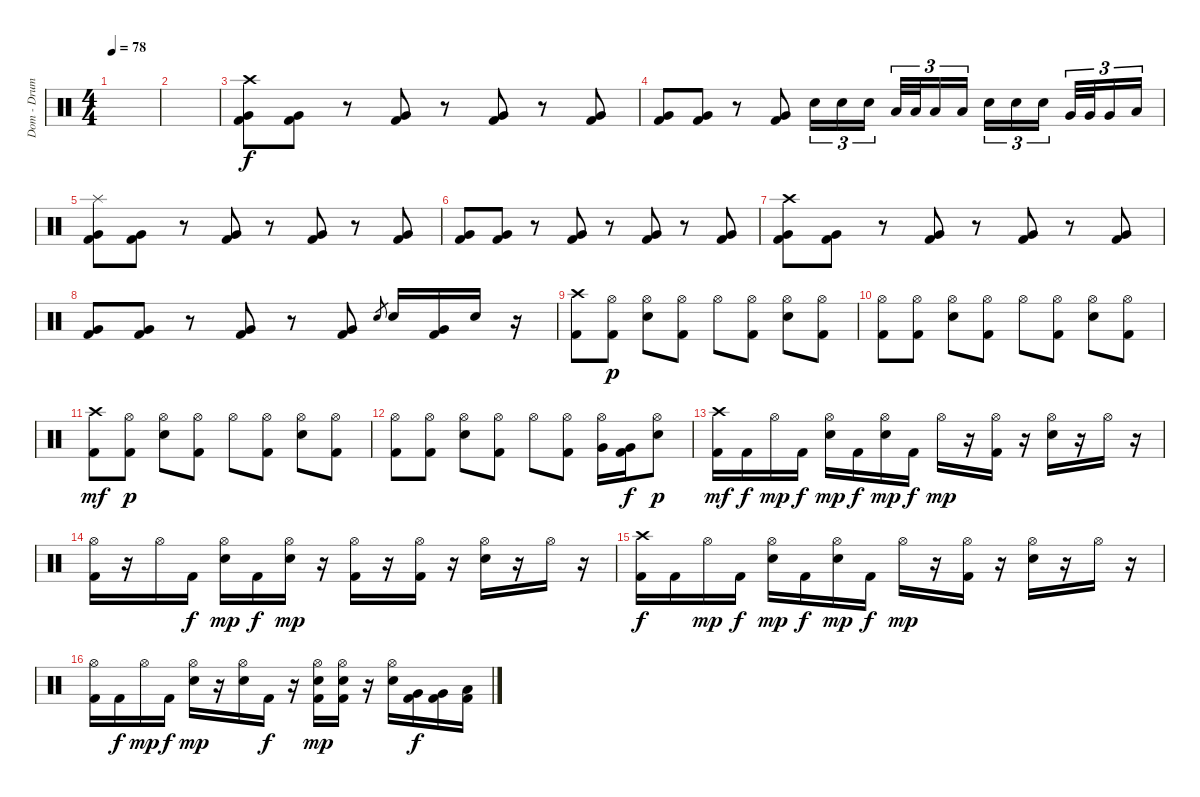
\track ("Dom - Drums" "Dom - Drum") {instrument percussion}
\staff {score}
\articulation defaults
\ts (4 4)
\tempo 78
\clef neutral
\ks c
|
|
("Crash high (hit)" "Very Low Tom (hit)" "Kick (hit) 2").8 ("Very Low Tom (hit)" "Kick (hit) 2").8 r.8 ("Very Low Tom (hit)" "Kick (hit) 2").8 r.8 ("Very Low Tom (hit)" "Kick (hit) 2").8 r.8 ("Very Low Tom (hit)" "Kick (hit) 2").8 |
("Very Low Tom (hit)" "Kick (hit) 2").8 ("Very Low Tom (hit)" "Kick (hit) 2").8 r.8 ("Very Low Tom (hit)" "Kick (hit) 2").8 "Electric Snare (hit)".16{tu (3 2)} "Electric Snare (hit)".16{tu (3 2)} "Electric Snare (hit)".16{tu (3 2)} "Low Tom (hit)".32{tu (3 2)} "Low Tom (hit)".32{tu (3 2)} "Low Tom (hit)".16{tu (3 2)} "Low Tom (hit)".16{tu (3 2)} "Electric Snare (hit)".16{tu (3 2)} "Electric Snare (hit)".16{tu (3 2)} "Electric Snare (hit)".16{tu (3 2)} "Very Low Tom (hit)".32{tu (3 2)} "Very Low Tom (hit)".32{tu (3 2)} "Very Low Tom (hit)".16{tu (3 2)} "Low Floor Tom (hit)".16{tu (3 2)} |
("Splash (hit)" "Very Low Tom (hit)" "Kick (hit) 2").8 ("Very Low Tom (hit)" "Kick (hit) 2").8 r.8 ("Very Low Tom (hit)" "Kick (hit) 2").8 r.8 ("Very Low Tom (hit)" "Kick (hit) 2").8 r.8 ("Very Low Tom (hit)" "Kick (hit) 2").8 |
("Very Low Tom (hit)" "Kick (hit) 2").8 ("Very Low Tom (hit)" "Kick (hit) 2").8 r.8 ("Very Low Tom (hit)" "Kick (hit) 2").8 r.8 ("Very Low Tom (hit)" "Kick (hit) 2").8 r.8 ("Very Low Tom (hit)" "Kick (hit) 2").8 |
("Crash high (hit)" "Very Low Tom (hit)" "Kick (hit) 2").8 ("Very Low Tom (hit)" "Kick (hit) 2").8 r.8 ("Very Low Tom (hit)" "Kick (hit) 2").8 r.8 ("Very Low Tom (hit)" "Kick (hit) 2").8 r.8 ("Very Low Tom (hit)" "Kick (hit) 2").8 |
("Very Low Tom (hit)" "Kick (hit) 2").8 ("Very Low Tom (hit)" "Kick (hit) 2").8 r.8 ("Very Low Tom (hit)" "Kick (hit) 2").8 r.8 ("Very Low Tom (hit)" "Kick (hit) 2").8 "Electric Snare (hit)".8{gr} "Electric Snare (hit)".16 ("Very Low Tom (hit)" "Kick (hit) 2").16 "Electric Snare (hit)".16 r.16 |
("Crash high (hit)" "Kick (hit) 2").8 ("Hi-Hat (open)" "Kick (hit) 2").8{dy p} ("Hi-Hat (open)" "Electric Snare (hit)").8 ("Hi-Hat (open)" "Kick (hit) 2").8 "Hi-Hat (open)".8 ("Hi-Hat (open)" "Kick (hit) 2").8 ("Hi-Hat (open)" "Electric Snare (hit)").8 ("Hi-Hat (open)" "Kick (hit) 2").8 |
("Hi-Hat (open)" "Kick (hit) 2").8 ("Hi-Hat (open)" "Kick (hit) 2").8 ("Hi-Hat (open)" "Electric Snare (hit)").8 ("Hi-Hat (open)" "Kick (hit) 2").8 "Hi-Hat (open)".8 ("Hi-Hat (open)" "Kick (hit) 2").8 ("Hi-Hat (open)" "Electric Snare (hit)").8 ("Hi-Hat (open)" "Kick (hit) 2").8 |
("Crash high (hit)" "Kick (hit) 2").8{dy mf} ("Hi-Hat (open)" "Kick (hit) 2").8{dy p} ("Hi-Hat (open)" "Electric Snare (hit)").8 ("Hi-Hat (open)" "Kick (hit) 2").8 "Hi-Hat (open)".8 ("Hi-Hat (open)" "Kick (hit) 2").8 ("Hi-Hat (open)" "Electric Snare (hit)").8 ("Hi-Hat (open)" "Kick (hit) 2").8 |
("Hi-Hat (open)" "Kick (hit) 2").8 ("Hi-Hat (open)" "Kick (hit) 2").8 ("Hi-Hat (open)" "Electric Snare (hit)").8 ("Hi-Hat (open)" "Kick (hit) 2").8 "Hi-Hat (open)".8 ("Hi-Hat (open)" "Kick (hit) 2").8 ("Hi-Hat (open)" "Very Low Tom (hit)").16 ("Very Low Tom (hit)" "Kick (hit) 2").16{dy f} ("Hi-Hat (open)" "Electric Snare (hit)").8{dy p} |
("Crash high (hit)" "Kick (hit) 2").16{dy mf} "Kick (hit) 2".16{dy f} "Hi-Hat (open)".16{dy mp} "Kick (hit) 2".16{dy f} ("Hi-Hat (open)" "Electric Snare (hit)").16{dy mp} "Kick (hit) 2".16{dy f} ("Hi-Hat (open)" "Electric Snare (hit)").16{dy mp} "Kick (hit) 2".16{dy f} "Hi-Hat (open)".16{dy mp} r.16 ("Hi-Hat (open)" "Kick (hit) 2").16 r.16 ("Hi-Hat (open)" "Electric Snare (hit)").16 r.16 "Hi-Hat (open)".16 r.16 |
("Hi-Hat (open)" "Kick (hit) 2").16 r.16 "Hi-Hat (open)".16 "Kick (hit) 2".16{dy f} ("Hi-Hat (open)" "Electric Snare (hit)").16{dy mp} "Kick (hit) 2".16{dy f} ("Hi-Hat (open)" "Electric Snare (hit)").16{dy mp} r.16 ("Hi-Hat (open)" "Kick (hit) 2").16 r.16 ("Hi-Hat (open)" "Kick (hit) 2").16 r.16 ("Hi-Hat (open)" "Electric Snare (hit)").16 r.16 "Hi-Hat (open)".16 r.16 |
("Crash high (hit)" "Kick (hit) 2").16{dy f} "Kick (hit) 2".16 "Hi-Hat (open)".16{dy mp} "Kick (hit) 2".16{dy f} ("Hi-Hat (open)" "Electric Snare (hit)").16{dy mp} "Kick (hit) 2".16{dy f} ("Hi-Hat (open)" "Electric Snare (hit)").16{dy mp} "Kick (hit) 2".16{dy f} "Hi-Hat (open)".16{dy mp} r.16 ("Hi-Hat (open)" "Kick (hit) 2").16 r.16 ("Hi-Hat (open)" "Electric Snare (hit)").16 r.16 "Hi-Hat (open)".16 r.16 |
("Hi-Hat (open)" "Kick (hit) 2").16 "Kick (hit) 2".16{dy f} "Hi-Hat (open)".16{dy mp} "Kick (hit) 2".16{dy f} ("Hi-Hat (open)" "Electric Snare (hit)").16{dy mp} r.16 ("Hi-Hat (open)" "Electric Snare (hit)").16 "Kick (hit) 2".16{dy f} r.16 ("Hi-Hat (open)" "Electric Snare (hit)" "Kick (hit) 2").16{dy mp} ("Hi-Hat (open)" "Electric Snare (hit)" "Kick (hit) 2").16 r.16 ("Hi-Hat (open)" "Electric Snare (hit)").16 ("Very Low Tom (hit)" "Kick (hit) 2").16{dy f} ("Very Low Tom (hit)" "Kick (hit) 2").16 ("Low Floor Tom (hit)" "Kick (hit) 2").16
